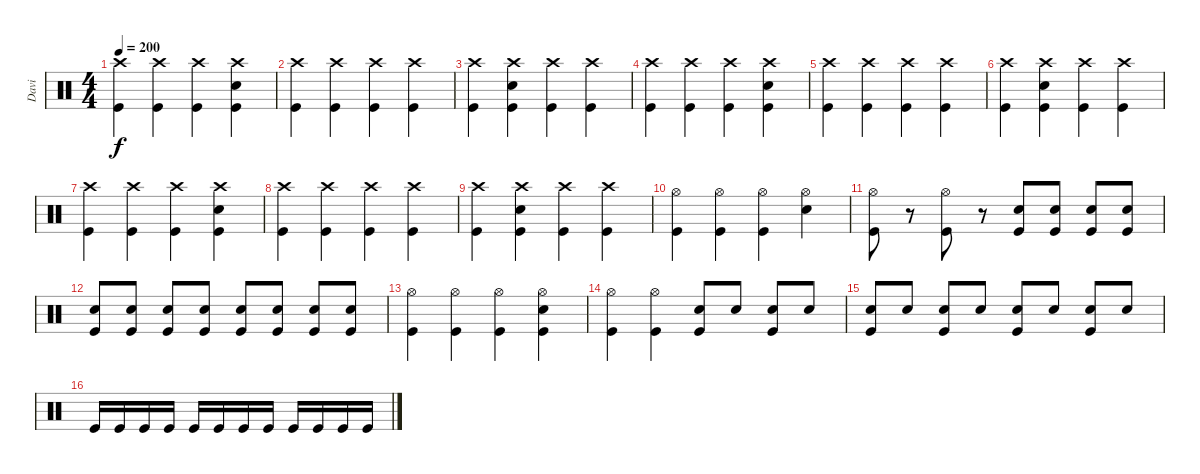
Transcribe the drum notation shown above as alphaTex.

\track ("Davi" "Davi") {instrument percussion}
\staff {score}
\articulation defaults
\ts (4 4)
\tempo 200
\clef neutral
\ks c
("Crash high (hit)" "Kick (hit)").4{dy f} ("Crash high (hit)" "Kick (hit)").4 ("Crash high (hit)" "Kick (hit)").4 ("Crash high (hit)" "Electric Snare (hit)" "Kick (hit)").4 |
("Crash high (hit)" "Kick (hit)").4 ("Crash high (hit)" "Kick (hit)").4 ("Crash high (hit)" "Kick (hit)").4 ("Crash high (hit)" "Kick (hit)").4 |
("Crash high (hit)" "Kick (hit)").4 ("Crash high (hit)" "Electric Snare (hit)" "Kick (hit)").4 ("Crash high (hit)" "Kick (hit)").4 ("Crash high (hit)" "Kick (hit)").4 |
("Crash high (hit)" "Kick (hit)").4 ("Crash high (hit)" "Kick (hit)").4 ("Crash high (hit)" "Kick (hit)").4 ("Crash high (hit)" "Electric Snare (hit)" "Kick (hit)").4 |
("Crash high (hit)" "Kick (hit)").4 ("Crash high (hit)" "Kick (hit)").4 ("Crash high (hit)" "Kick (hit)").4 ("Crash high (hit)" "Kick (hit)").4 |
("Crash high (hit)" "Kick (hit)").4 ("Crash high (hit)" "Electric Snare (hit)" "Kick (hit)").4 ("Crash high (hit)" "Kick (hit)").4 ("Crash high (hit)" "Kick (hit)").4 |
("Crash high (hit)" "Kick (hit)").4 ("Crash high (hit)" "Kick (hit)").4 ("Crash high (hit)" "Kick (hit)").4 ("Crash high (hit)" "Electric Snare (hit)" "Kick (hit)").4 |
("Crash high (hit)" "Kick (hit)").4 ("Crash high (hit)" "Kick (hit)").4 ("Crash high (hit)" "Kick (hit)").4 ("Crash high (hit)" "Kick (hit)").4 |
("Crash high (hit)" "Kick (hit)").4 ("Crash high (hit)" "Electric Snare (hit)" "Kick (hit)").4 ("Crash high (hit)" "Kick (hit)").4 ("Crash high (hit)" "Kick (hit)").4 |
("Hi-Hat (open)" "Kick (hit)").4 ("Hi-Hat (open)" "Kick (hit)").4 ("Hi-Hat (open)" "Kick (hit)").4 ("Hi-Hat (open)" "Electric Snare (hit)").4 |
("Hi-Hat (open)" "Kick (hit)").8 r.8 ("Hi-Hat (open)" "Kick (hit)").8 r.8 ("Electric Snare (hit)" "Kick (hit)").8 ("Electric Snare (hit)" "Kick (hit)").8 ("Electric Snare (hit)" "Kick (hit)").8 ("Electric Snare (hit)" "Kick (hit)").8 |
("Electric Snare (hit)" "Kick (hit)").8 ("Electric Snare (hit)" "Kick (hit)").8 ("Electric Snare (hit)" "Kick (hit)").8 ("Electric Snare (hit)" "Kick (hit)").8 ("Electric Snare (hit)" "Kick (hit)").8 ("Electric Snare (hit)" "Kick (hit)").8 ("Electric Snare (hit)" "Kick (hit)").8 ("Electric Snare (hit)" "Kick (hit)").8 |
("Hi-Hat (open)" "Kick (hit)").4 ("Hi-Hat (open)" "Kick (hit)").4 ("Hi-Hat (open)" "Kick (hit)").4 ("Hi-Hat (open)" "Electric Snare (hit)" "Kick (hit)").4 |
("Hi-Hat (open)" "Kick (hit)").4 ("Hi-Hat (open)" "Kick (hit)").4 ("Electric Snare (hit)" "Kick (hit)").8 "Electric Snare (hit)".8 ("Electric Snare (hit)" "Kick (hit)").8 "Electric Snare (hit)".8 |
("Electric Snare (hit)" "Kick (hit)").8 "Electric Snare (hit)".8 ("Electric Snare (hit)" "Kick (hit)").8 "Electric Snare (hit)".8 ("Electric Snare (hit)" "Kick (hit)").8 "Electric Snare (hit)".8 ("Electric Snare (hit)" "Kick (hit)").8 "Electric Snare (hit)".8 |
"Kick (hit)".16 "Kick (hit)".16 "Kick (hit)".16 "Kick (hit)".16 "Kick (hit)".16 "Kick (hit)".16 "Kick (hit)".16 "Kick (hit)".16 "Kick (hit)".16 "Kick (hit)".16 "Kick (hit)".16 "Kick (hit)".16
